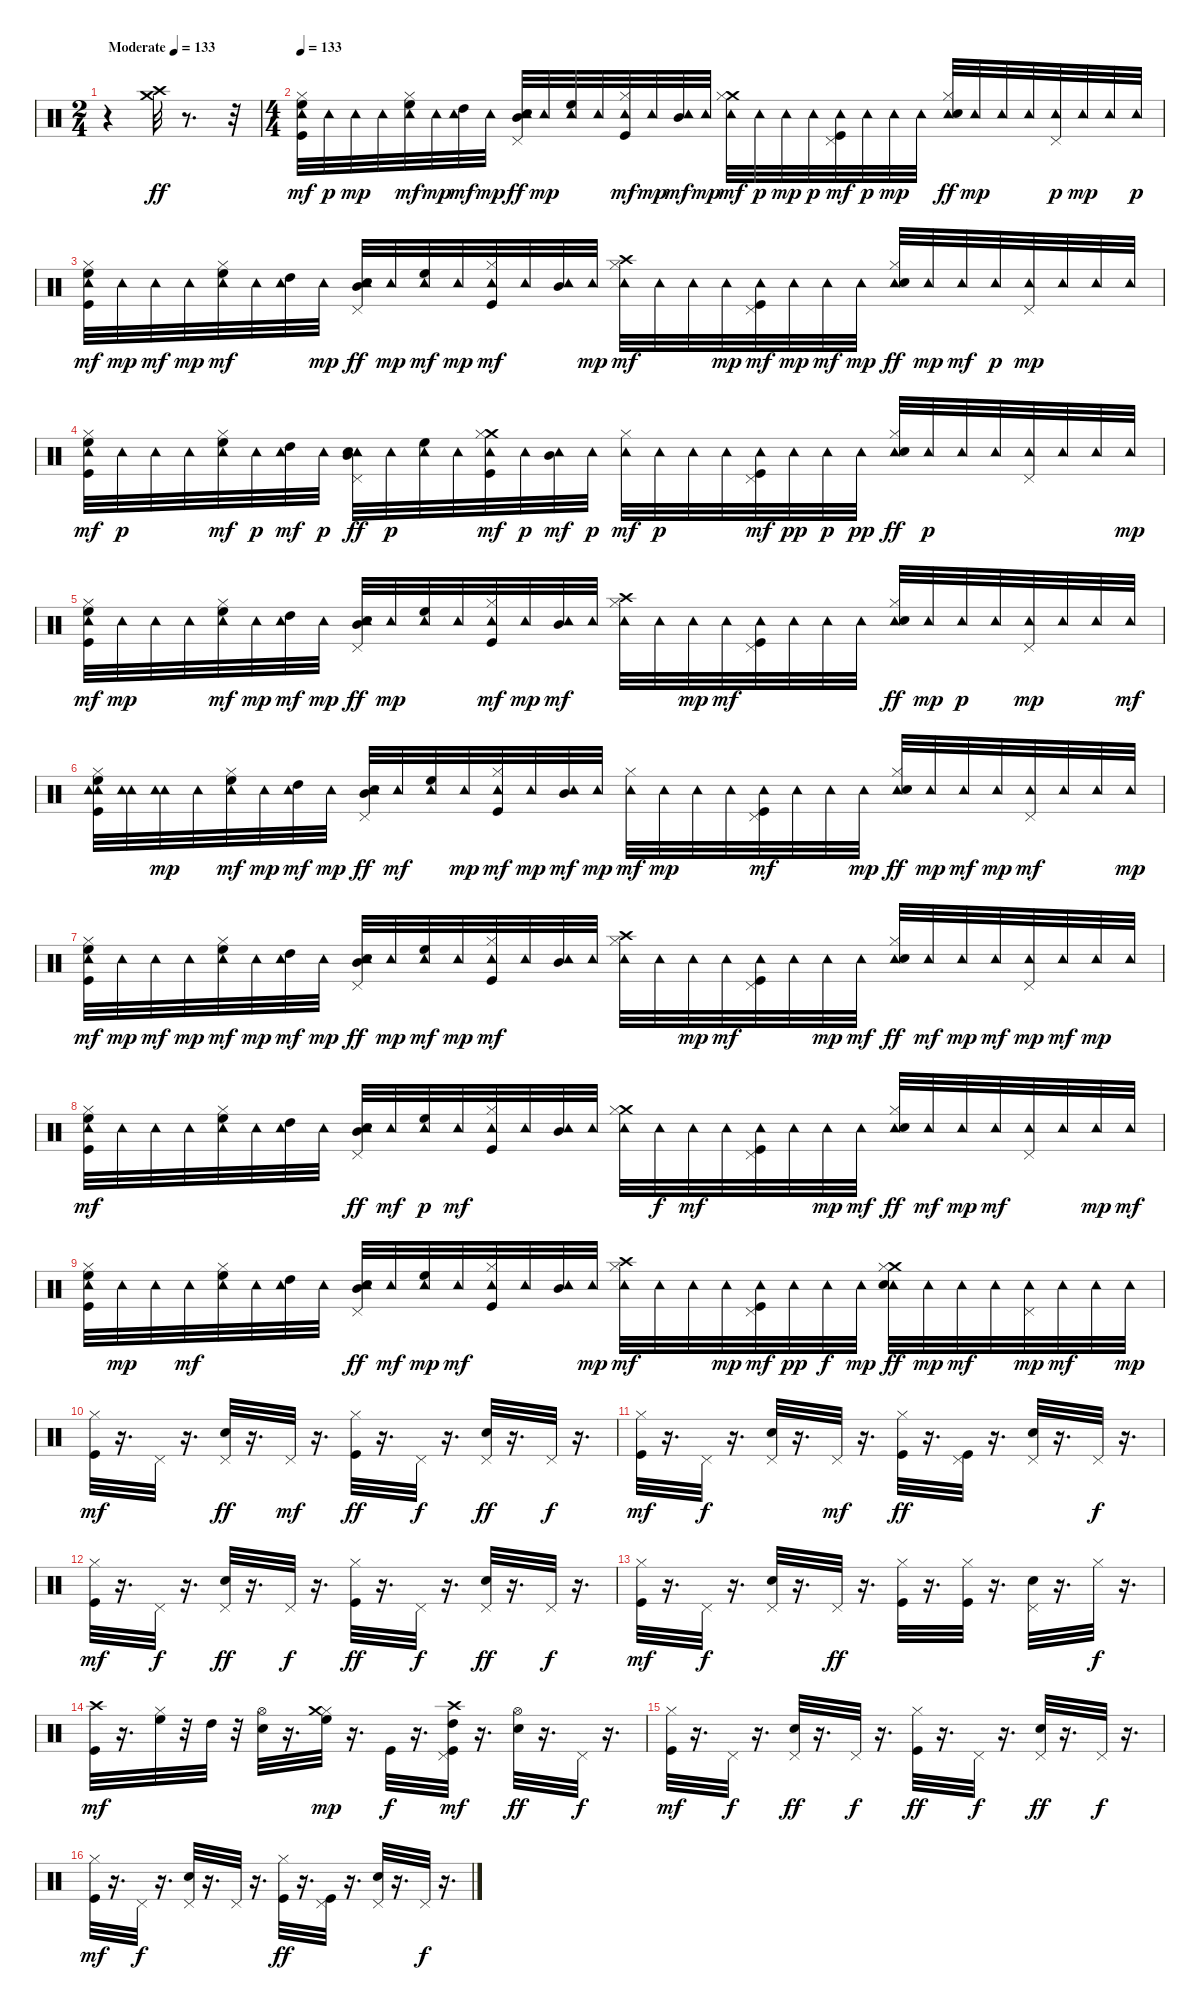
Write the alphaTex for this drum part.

\track "" {instrument percussion}
\staff {score}
\articulation defaults
\ts (2 4)
\tempo (133 "Moderate")
\clef neutral
\ks c
r.4{dy ff} ("Crash high (hit)" "Crash medium (hit)").32 r.8{d} r.32 |
\ts (4 4)
\tempo 133
("Tambourine (hit)" "High Floor Tom (hit)" "Hi-Hat (closed)" "Kick (hit)").32{dy mf} "Tambourine (hit)".32{dy p} "Tambourine (hit)".32{dy mp} "Tambourine (hit)".32 ("Tambourine (hit)" "High Floor Tom (hit)" "Hi-Hat (closed)").32{dy mf} "Tambourine (hit)".32{dy mp} ("Tambourine (hit)" "High Tom (hit)").32{dy mf} "Tambourine (hit)".32{dy mp} ("Tambourine (hit)" "Mid Tom (hit)" "Pedal Hi-Hat (hit)" "Snare (hit) 2").32{dy ff} "Tambourine (hit)".32{dy mp} ("Tambourine (hit)" "High Floor Tom (hit)").32 "Tambourine (hit)".32 ("Tambourine (hit)" "Hi-Hat (closed)" "Kick (hit)").32{dy mf} "Tambourine (hit)".32{dy mp} ("Tambourine (hit)" "Mid Tom (hit)").32{dy mf} "Tambourine (hit)".32{dy mp} ("Tambourine (hit)" "Crash medium (hit)" "Hi-Hat (closed)").32{dy mf} "Tambourine (hit)".32{dy p} "Tambourine (hit)".32{dy mp} "Tambourine (hit)".32{dy p} ("Tambourine (hit)" "Kick (hit)" "Pedal Hi-Hat (hit)").32{dy mf} "Tambourine (hit)".32{dy p} "Tambourine (hit)".32{dy mp} "Tambourine (hit)".32 ("Tambourine (hit)" "Hi-Hat (closed)" "Snare (hit) 2").32{dy ff} "Tambourine (hit)".32{dy mp} "Tambourine (hit)".32 "Tambourine (hit)".32 ("Tambourine (hit)" "Pedal Hi-Hat (hit)").32{dy p} "Tambourine (hit)".32{dy mp} "Tambourine (hit)".32 "Tambourine (hit)".32{dy p} |
("Tambourine (hit)" "High Floor Tom (hit)" "Hi-Hat (closed)" "Kick (hit)").32{dy mf} "Tambourine (hit)".32{dy mp} "Tambourine (hit)".32{dy mf} "Tambourine (hit)".32{dy mp} ("Tambourine (hit)" "High Floor Tom (hit)" "Hi-Hat (closed)").32{dy mf} "Tambourine (hit)".32 ("Tambourine (hit)" "High Tom (hit)").32 "Tambourine (hit)".32{dy mp} ("Tambourine (hit)" "Mid Tom (hit)" "Pedal Hi-Hat (hit)" "Snare (hit) 2").32{dy ff} "Tambourine (hit)".32{dy mp} ("Tambourine (hit)" "High Floor Tom (hit)").32{dy mf} "Tambourine (hit)".32{dy mp} ("Tambourine (hit)" "Hi-Hat (closed)" "Kick (hit)").32{dy mf} "Tambourine (hit)".32 ("Tambourine (hit)" "Mid Tom (hit)").32 "Tambourine (hit)".32{dy mp} ("Tambourine (hit)" "Crash high (hit)" "Hi-Hat (closed)").32{dy mf} "Tambourine (hit)".32 "Tambourine (hit)".32 "Tambourine (hit)".32{dy mp} ("Tambourine (hit)" "Kick (hit)" "Pedal Hi-Hat (hit)").32{dy mf} "Tambourine (hit)".32{dy mp} "Tambourine (hit)".32{dy mf} "Tambourine (hit)".32{dy mp} ("Tambourine (hit)" "Hi-Hat (closed)" "Snare (hit) 2").32{dy ff} "Tambourine (hit)".32{dy mp} "Tambourine (hit)".32{dy mf} "Tambourine (hit)".32{dy p} ("Tambourine (hit)" "Pedal Hi-Hat (hit)").32{dy mp} "Tambourine (hit)".32 "Tambourine (hit)".32 "Tambourine (hit)".32 |
("Tambourine (hit)" "High Floor Tom (hit)" "Hi-Hat (closed)" "Kick (hit)").32{dy mf} "Tambourine (hit)".32{dy p} "Tambourine (hit)".32 "Tambourine (hit)".32 ("Tambourine (hit)" "High Floor Tom (hit)" "Hi-Hat (closed)").32{dy mf} "Tambourine (hit)".32{dy p} ("Tambourine (hit)" "High Tom (hit)").32{dy mf} "Tambourine (hit)".32{dy p} ("Tambourine (hit)" "Mid Tom (hit)" "Pedal Hi-Hat (hit)" "Snare (hit) 2").32{dy ff} "Tambourine (hit)".32{dy p} ("Tambourine (hit)" "High Floor Tom (hit)").32 "Tambourine (hit)".32 ("Tambourine (hit)" "Crash medium (hit)" "Hi-Hat (closed)" "Kick (hit)").32{dy mf} "Tambourine (hit)".32{dy p} ("Tambourine (hit)" "Mid Tom (hit)").32{dy mf} "Tambourine (hit)".32{dy p} ("Tambourine (hit)" "Hi-Hat (closed)").32{dy mf} "Tambourine (hit)".32{dy p} "Tambourine (hit)".32 "Tambourine (hit)".32 ("Tambourine (hit)" "Kick (hit)" "Pedal Hi-Hat (hit)").32{dy mf} "Tambourine (hit)".32{dy pp} "Tambourine (hit)".32{dy p} "Tambourine (hit)".32{dy pp} ("Tambourine (hit)" "Hi-Hat (closed)" "Snare (hit) 2").32{dy ff} "Tambourine (hit)".32{dy p} "Tambourine (hit)".32 "Tambourine (hit)".32 ("Tambourine (hit)" "Pedal Hi-Hat (hit)").32 "Tambourine (hit)".32 "Tambourine (hit)".32 "Tambourine (hit)".32{dy mp} |
("Tambourine (hit)" "High Floor Tom (hit)" "Hi-Hat (closed)" "Kick (hit)").32{dy mf} "Tambourine (hit)".32{dy mp} "Tambourine (hit)".32 "Tambourine (hit)".32 ("Tambourine (hit)" "High Floor Tom (hit)" "Hi-Hat (closed)").32{dy mf} "Tambourine (hit)".32{dy mp} ("Tambourine (hit)" "High Tom (hit)").32{dy mf} "Tambourine (hit)".32{dy mp} ("Tambourine (hit)" "Mid Tom (hit)" "Pedal Hi-Hat (hit)" "Snare (hit) 2").32{dy ff} "Tambourine (hit)".32{dy mp} ("Tambourine (hit)" "High Floor Tom (hit)").32 "Tambourine (hit)".32 ("Tambourine (hit)" "Hi-Hat (closed)" "Kick (hit)").32{dy mf} "Tambourine (hit)".32{dy mp} ("Tambourine (hit)" "Mid Tom (hit)").32{dy mf} "Tambourine (hit)".32 ("Tambourine (hit)" "Crash high (hit)" "Hi-Hat (closed)").32 "Tambourine (hit)".32 "Tambourine (hit)".32{dy mp} "Tambourine (hit)".32{dy mf} ("Tambourine (hit)" "Kick (hit)" "Pedal Hi-Hat (hit)").32 "Tambourine (hit)".32 "Tambourine (hit)".32 "Tambourine (hit)".32 ("Tambourine (hit)" "Hi-Hat (closed)" "Snare (hit) 2").32{dy ff} "Tambourine (hit)".32{dy mp} "Tambourine (hit)".32{dy p} "Tambourine (hit)".32 ("Tambourine (hit)" "Pedal Hi-Hat (hit)").32{dy mp} "Tambourine (hit)".32 "Tambourine (hit)".32 "Tambourine (hit)".32{dy mf} |
("Tambourine (hit)" "Tambourine (hit)" "High Floor Tom (hit)" "Hi-Hat (closed)" "Kick (hit)").32 ("Tambourine (hit)" "Tambourine (hit)").32 ("Tambourine (hit)" "Tambourine (hit)").32{dy mp} "Tambourine (hit)".32 ("Tambourine (hit)" "High Floor Tom (hit)" "Hi-Hat (closed)").32{dy mf} "Tambourine (hit)".32{dy mp} ("Tambourine (hit)" "High Tom (hit)").32{dy mf} "Tambourine (hit)".32{dy mp} ("Tambourine (hit)" "Mid Tom (hit)" "Pedal Hi-Hat (hit)" "Snare (hit) 2").32{dy ff} "Tambourine (hit)".32{dy mf} ("Tambourine (hit)" "High Floor Tom (hit)").32 "Tambourine (hit)".32{dy mp} ("Tambourine (hit)" "Hi-Hat (closed)" "Kick (hit)").32{dy mf} "Tambourine (hit)".32{dy mp} ("Tambourine (hit)" "Mid Tom (hit)").32{dy mf} "Tambourine (hit)".32{dy mp} ("Tambourine (hit)" "Hi-Hat (closed)").32{dy mf} "Tambourine (hit)".32{dy mp} "Tambourine (hit)".32 "Tambourine (hit)".32 ("Tambourine (hit)" "Kick (hit)" "Pedal Hi-Hat (hit)").32{dy mf} "Tambourine (hit)".32 "Tambourine (hit)".32 "Tambourine (hit)".32{dy mp} ("Tambourine (hit)" "Hi-Hat (closed)" "Snare (hit) 2").32{dy ff} "Tambourine (hit)".32{dy mp} "Tambourine (hit)".32{dy mf} "Tambourine (hit)".32{dy mp} ("Tambourine (hit)" "Pedal Hi-Hat (hit)").32{dy mf} "Tambourine (hit)".32 "Tambourine (hit)".32 "Tambourine (hit)".32{dy mp} |
("Tambourine (hit)" "High Floor Tom (hit)" "Hi-Hat (closed)" "Kick (hit)").32{dy mf} "Tambourine (hit)".32{dy mp} "Tambourine (hit)".32{dy mf} "Tambourine (hit)".32{dy mp} ("Tambourine (hit)" "High Floor Tom (hit)" "Hi-Hat (closed)").32{dy mf} "Tambourine (hit)".32{dy mp} ("Tambourine (hit)" "High Tom (hit)").32{dy mf} "Tambourine (hit)".32{dy mp} ("Tambourine (hit)" "Mid Tom (hit)" "Pedal Hi-Hat (hit)" "Snare (hit) 2").32{dy ff} "Tambourine (hit)".32{dy mp} ("Tambourine (hit)" "High Floor Tom (hit)").32{dy mf} "Tambourine (hit)".32{dy mp} ("Tambourine (hit)" "Hi-Hat (closed)" "Kick (hit)").32{dy mf} "Tambourine (hit)".32 ("Tambourine (hit)" "Mid Tom (hit)").32 "Tambourine (hit)".32 ("Tambourine (hit)" "Crash high (hit)" "Hi-Hat (closed)").32 "Tambourine (hit)".32 "Tambourine (hit)".32{dy mp} "Tambourine (hit)".32{dy mf} ("Tambourine (hit)" "Kick (hit)" "Pedal Hi-Hat (hit)").32 "Tambourine (hit)".32 "Tambourine (hit)".32{dy mp} "Tambourine (hit)".32{dy mf} ("Tambourine (hit)" "Hi-Hat (closed)" "Snare (hit) 2").32{dy ff} "Tambourine (hit)".32{dy mf} "Tambourine (hit)".32{dy mp} "Tambourine (hit)".32{dy mf} ("Tambourine (hit)" "Pedal Hi-Hat (hit)").32{dy mp} "Tambourine (hit)".32{dy mf} "Tambourine (hit)".32{dy mp} "Tambourine (hit)".32 |
("Tambourine (hit)" "High Floor Tom (hit)" "Hi-Hat (closed)" "Kick (hit)").32{dy mf} "Tambourine (hit)".32 "Tambourine (hit)".32 "Tambourine (hit)".32 ("Tambourine (hit)" "High Floor Tom (hit)" "Hi-Hat (closed)").32 "Tambourine (hit)".32 ("Tambourine (hit)" "High Tom (hit)").32 "Tambourine (hit)".32 ("Tambourine (hit)" "Mid Tom (hit)" "Pedal Hi-Hat (hit)" "Snare (hit) 2").32{dy ff} "Tambourine (hit)".32{dy mf} ("Tambourine (hit)" "High Floor Tom (hit)").32{dy p} "Tambourine (hit)".32{dy mf} ("Tambourine (hit)" "Hi-Hat (closed)" "Kick (hit)").32 "Tambourine (hit)".32 ("Tambourine (hit)" "Mid Tom (hit)").32 "Tambourine (hit)".32 ("Tambourine (hit)" "Crash medium (hit)" "Hi-Hat (closed)").32 "Tambourine (hit)".32{dy f} "Tambourine (hit)".32{dy mf} "Tambourine (hit)".32 ("Tambourine (hit)" "Kick (hit)" "Pedal Hi-Hat (hit)").32 "Tambourine (hit)".32 "Tambourine (hit)".32{dy mp} "Tambourine (hit)".32{dy mf} ("Tambourine (hit)" "Hi-Hat (closed)" "Snare (hit) 2").32{dy ff} "Tambourine (hit)".32{dy mf} "Tambourine (hit)".32{dy mp} "Tambourine (hit)".32{dy mf} ("Tambourine (hit)" "Pedal Hi-Hat (hit)").32 "Tambourine (hit)".32 "Tambourine (hit)".32{dy mp} "Tambourine (hit)".32{dy mf} |
("Tambourine (hit)" "High Floor Tom (hit)" "Hi-Hat (closed)" "Kick (hit)").32 "Tambourine (hit)".32{dy mp} "Tambourine (hit)".32 "Tambourine (hit)".32{dy mf} ("Tambourine (hit)" "High Floor Tom (hit)" "Hi-Hat (closed)").32 "Tambourine (hit)".32 ("Tambourine (hit)" "High Tom (hit)").32 "Tambourine (hit)".32 ("Tambourine (hit)" "Mid Tom (hit)" "Pedal Hi-Hat (hit)" "Snare (hit) 2").32{dy ff} "Tambourine (hit)".32{dy mf} ("Tambourine (hit)" "High Floor Tom (hit)").32{dy mp} "Tambourine (hit)".32{dy mf} ("Tambourine (hit)" "Hi-Hat (closed)" "Kick (hit)").32 "Tambourine (hit)".32 ("Tambourine (hit)" "Mid Tom (hit)").32 "Tambourine (hit)".32{dy mp} ("Tambourine (hit)" "Crash high (hit)" "Hi-Hat (closed)").32{dy mf} "Tambourine (hit)".32 "Tambourine (hit)".32 "Tambourine (hit)".32{dy mp} ("Tambourine (hit)" "Kick (hit)" "Pedal Hi-Hat (hit)").32{dy mf} "Tambourine (hit)".32{dy pp} "Tambourine (hit)".32{dy f} "Tambourine (hit)".32{dy mp} ("Tambourine (hit)" "Crash medium (hit)" "Hi-Hat (closed)" "Snare (hit) 2").32{dy ff} "Tambourine (hit)".32{dy mp} "Tambourine (hit)".32{dy mf} "Tambourine (hit)".32 ("Tambourine (hit)" "Pedal Hi-Hat (hit)").32{dy mp} "Tambourine (hit)".32{dy mf} "Tambourine (hit)".32 "Tambourine (hit)".32{dy mp} |
("Hi-Hat (closed)" "Kick (hit)").32{dy mf} r.16{d} "Pedal Hi-Hat (hit)".32 r.16{d} ("Pedal Hi-Hat (hit)" "Snare (hit) 2").32{dy ff} r.16{d} "Pedal Hi-Hat (hit)".32{dy mf} r.16{d} ("Hi-Hat (closed)" "Kick (hit)").32{dy ff} r.16{d} "Pedal Hi-Hat (hit)".32{dy f} r.16{d} ("Pedal Hi-Hat (hit)" "Snare (hit) 2").32{dy ff} r.16{d} "Pedal Hi-Hat (hit)".32{dy f} r.16{d} |
("Hi-Hat (closed)" "Kick (hit)").32{dy mf} r.16{d} "Pedal Hi-Hat (hit)".32{dy f} r.16{d} ("Pedal Hi-Hat (hit)" "Snare (hit) 2").32 r.16{d} "Pedal Hi-Hat (hit)".32{dy mf} r.16{d} ("Hi-Hat (closed)" "Kick (hit)").32{dy ff} r.16{d} ("Pedal Hi-Hat (hit)" "Kick (hit)").32 r.16{d} ("Pedal Hi-Hat (hit)" "Snare (hit) 2").32 r.16{d} "Pedal Hi-Hat (hit)".32{dy f} r.16{d} |
("Hi-Hat (closed)" "Kick (hit)").32{dy mf} r.16{d} "Pedal Hi-Hat (hit)".32{dy f} r.16{d} ("Pedal Hi-Hat (hit)" "Snare (hit) 2").32{dy ff} r.16{d} "Pedal Hi-Hat (hit)".32{dy f} r.16{d} ("Hi-Hat (closed)" "Kick (hit)").32{dy ff} r.16{d} "Pedal Hi-Hat (hit)".32{dy f} r.16{d} ("Pedal Hi-Hat (hit)" "Snare (hit) 2").32{dy ff} r.16{d} "Pedal Hi-Hat (hit)".32{dy f} r.16{d} |
("Hi-Hat (closed)" "Kick (hit)").32{dy mf} r.16{d} "Pedal Hi-Hat (hit)".32{dy f} r.16{d} ("Pedal Hi-Hat (hit)" "Snare (hit) 2").32 r.16{d} "Pedal Hi-Hat (hit)".32{dy ff} r.16{d} ("Hi-Hat (closed)" "Kick (hit)").32 r.16{d} ("Hi-Hat (closed)" "Kick (hit)").32 r.16{d} ("Pedal Hi-Hat (hit)" "Snare (hit) 2").32 r.16{d} "Hi-Hat (closed)".32{dy f} r.16{d} |
("Crash high (hit)" "Kick (hit)").32{dy mf} r.16{d} ("Hi-Hat (closed)" "High Floor Tom (hit)").32 r.32 "High Tom (hit)".32 r.32 ("Hi-Hat (open)" "Snare (hit) 2").32 r.16{d} ("Hi-Hat (closed)" "Crash medium (hit)" "High Floor Tom (hit)").32{dy mp} r.16{d} "Kick (hit)".32{dy f} r.16{d} ("Pedal Hi-Hat (hit)" "Crash high (hit)" "High Tom (hit)" "Kick (hit)").32{dy mf} r.16{d} ("Hi-Hat (open)" "Snare (hit) 2").32{dy ff} r.16{d} "Pedal Hi-Hat (hit)".32{dy f} r.16{d} |
("Hi-Hat (closed)" "Kick (hit)").32{dy mf} r.16{d} "Pedal Hi-Hat (hit)".32{dy f} r.16{d} ("Pedal Hi-Hat (hit)" "Snare (hit) 2").32{dy ff} r.16{d} "Pedal Hi-Hat (hit)".32{dy f} r.16{d} ("Hi-Hat (closed)" "Kick (hit)").32{dy ff} r.16{d} "Pedal Hi-Hat (hit)".32{dy f} r.16{d} ("Pedal Hi-Hat (hit)" "Snare (hit) 2").32{dy ff} r.16{d} "Pedal Hi-Hat (hit)".32{dy f} r.16{d} |
("Hi-Hat (closed)" "Kick (hit)").32{dy mf} r.16{d} "Pedal Hi-Hat (hit)".32{dy f} r.16{d} ("Pedal Hi-Hat (hit)" "Snare (hit) 2").32 r.16{d} "Pedal Hi-Hat (hit)".32 r.16{d} ("Hi-Hat (closed)" "Kick (hit)").32{dy ff} r.16{d} ("Pedal Hi-Hat (hit)" "Kick (hit)").32 r.16{d} ("Pedal Hi-Hat (hit)" "Snare (hit) 2").32 r.16{d} "Pedal Hi-Hat (hit)".32{dy f} r.16{d}
